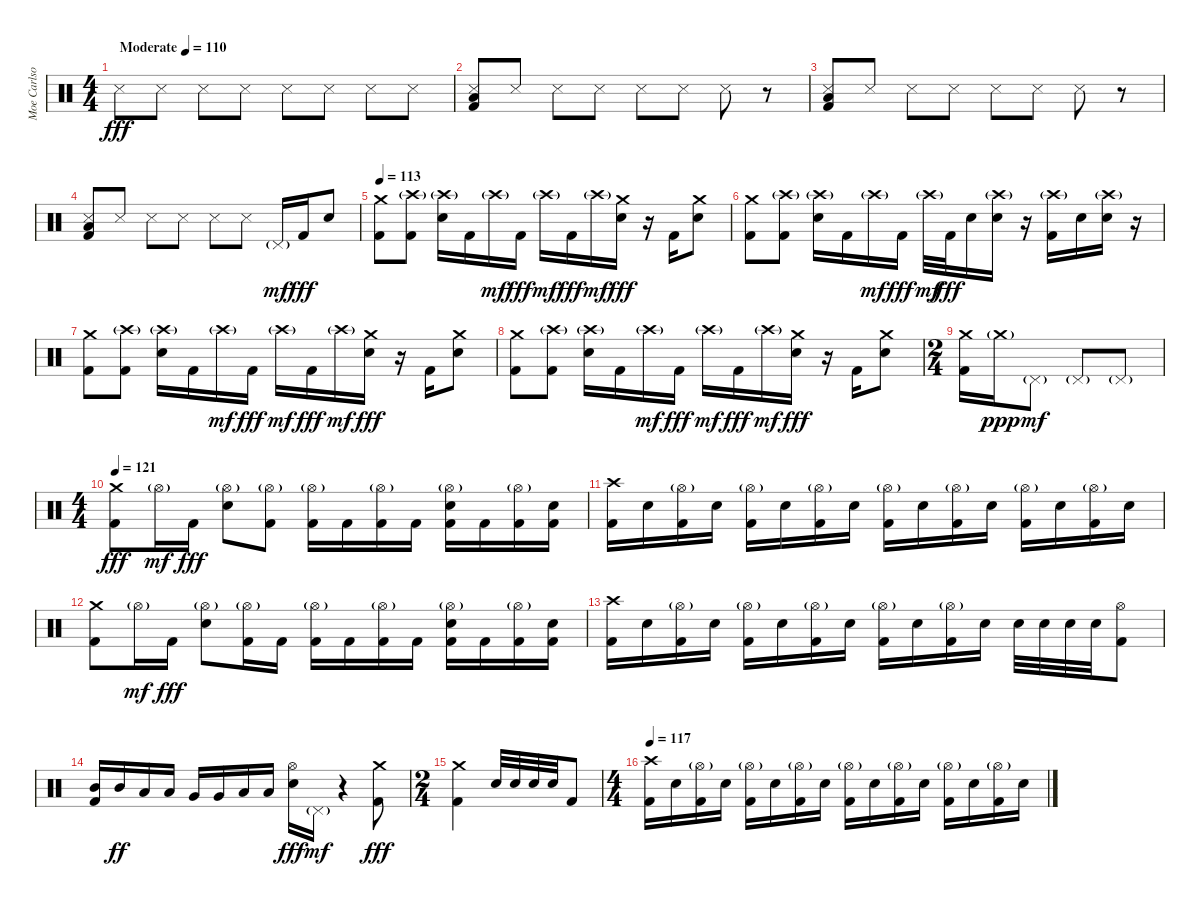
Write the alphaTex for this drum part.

\track ("Moe Carlson" "Moe Carlso") {instrument percussion}
\staff {score}
\articulation defaults
\ts (4 4)
\tempo (110 "Moderate")
\clef neutral
\ks c "Snare (side stick) 3".8{dy fff} "Snare (side stick) 3".8 "Snare (side stick) 3".8 "Snare (side stick) 3".8 "Snare (side stick) 3".8 "Snare (side stick) 3".8 "Snare (side stick) 3".8 "Snare (side stick) 3".8
|
("Snare (side stick) 3" "Low Floor Tom (hit)" "Kick (hit) 2").8 "Snare (side stick) 3".8 "Snare (side stick) 3".8 "Snare (side stick) 3".8 "Snare (side stick) 3".8 "Snare (side stick) 3".8 "Snare (side stick) 3".8 r.8 |
("Snare (side stick) 3" "Low Floor Tom (hit)" "Kick (hit) 2").8 "Snare (side stick) 3".8 "Snare (side stick) 3".8 "Snare (side stick) 3".8 "Snare (side stick) 3".8 "Snare (side stick) 3".8 "Snare (side stick) 3".8 r.8 |
("Snare (side stick) 3" "Low Floor Tom (hit)" "Kick (hit) 2").8 "Snare (side stick) 3".8 "Snare (side stick) 3".8 "Snare (side stick) 3".8 "Snare (side stick) 3".8 "Snare (side stick) 3".8 "Pedal Hi-Hat (hit)"{g}.16{dy mf} "Kick (hit) 2".16{dy fff} "Electric Snare (hit)".8 |
\tempo 113
("Crash medium (hit)" "Kick (hit) 2").8 ("Crash high (hit)"{g} "Kick (hit) 2").8 ("Crash high (hit)"{g} "Electric Snare (hit)").16 "Kick (hit) 2".16 "Crash high (hit)"{g}.16{dy mf} "Kick (hit) 2".16{dy fff} "Crash high (hit)"{g}.16{dy mf} "Kick (hit) 2".16{dy fff} "Crash high (hit)"{g}.16{dy mf} ("Crash medium (hit)" "Electric Snare (hit)").16{dy fff} r.16 "Kick (hit) 2".16 ("Crash medium (hit)" "Electric Snare (hit)").8 |
("Crash medium (hit)" "Kick (hit) 2").8 ("Crash high (hit)"{g} "Kick (hit) 2").8 ("Crash high (hit)"{g} "Electric Snare (hit)").16 "Kick (hit) 2".16 "Crash high (hit)"{g}.16{dy mf} "Kick (hit) 2".16{dy fff} "Crash high (hit)"{g}.32{dy mf} "Kick (hit) 2".32{dy fff} "Electric Snare (hit)".16 ("Crash high (hit)"{g} "Electric Snare (hit)").16 r.16 ("Crash high (hit)"{g} "Kick (hit) 2").16 "Electric Snare (hit)".16 ("Crash high (hit)"{g} "Electric Snare (hit)").16 r.16 |
("Crash medium (hit)" "Kick (hit) 2").8 ("Crash high (hit)"{g} "Kick (hit) 2").8 ("Crash high (hit)"{g} "Electric Snare (hit)").16 "Kick (hit) 2".16 "Crash high (hit)"{g}.16{dy mf} "Kick (hit) 2".16{dy fff} "Crash high (hit)"{g}.16{dy mf} "Kick (hit) 2".16{dy fff} "Crash high (hit)"{g}.16{dy mf} ("Crash medium (hit)" "Electric Snare (hit)").16{dy fff} r.16 "Kick (hit) 2".16 ("Crash medium (hit)" "Electric Snare (hit)").8 |
("Crash medium (hit)" "Kick (hit) 2").8 ("Crash high (hit)"{g} "Kick (hit) 2").8 ("Crash high (hit)"{g} "Electric Snare (hit)").16 "Kick (hit) 2".16 "Crash high (hit)"{g}.16{dy mf} "Kick (hit) 2".16{dy fff} "Crash high (hit)"{g}.16{dy mf} "Kick (hit) 2".16{dy fff} "Crash high (hit)"{g}.16{dy mf} ("Crash medium (hit)" "Electric Snare (hit)").16{dy fff} r.16 "Kick (hit) 2".16 ("Crash medium (hit)" "Electric Snare (hit)").8 |
\ts (2 4)
("Crash medium (hit)" "Kick (hit) 2").16 "Crash medium (hit)"{g}.16{dy ppp} "Pedal Hi-Hat (hit)"{g}.8{dy mf} "Pedal Hi-Hat (hit)"{g}.8 "Pedal Hi-Hat (hit)"{g}.8 |
\ts (4 4)
\tempo 121
("Crash medium (hit)" "Kick (hit) 2").8{dy fff} "Hi-Hat (open)"{g}.16{dy mf} "Kick (hit) 2".16{dy fff} ("Hi-Hat (open)"{g} "Electric Snare (hit)").8 ("Hi-Hat (open)"{g} "Kick (hit) 2").8 ("Hi-Hat (open)"{g} "Kick (hit) 2").16 "Kick (hit) 2".16 ("Hi-Hat (open)"{g} "Kick (hit) 2").16 "Kick (hit) 2".16 ("Hi-Hat (open)"{g} "Electric Snare (hit)" "Kick (hit) 2").16 "Kick (hit) 2".16 ("Hi-Hat (open)"{g} "Kick (hit) 2").16 ("Electric Snare (hit)" "Kick (hit) 2").16 |
("Crash high (hit)" "Kick (hit) 2").16 "Electric Snare (hit)".16 ("Hi-Hat (open)"{g} "Kick (hit) 2").16 "Electric Snare (hit)".16 ("Hi-Hat (open)"{g} "Kick (hit) 2").16 "Electric Snare (hit)".16 ("Hi-Hat (open)"{g} "Kick (hit) 2").16 "Electric Snare (hit)".16 ("Hi-Hat (open)"{g} "Kick (hit) 2").16 "Electric Snare (hit)".16 ("Hi-Hat (open)"{g} "Kick (hit) 2").16 "Electric Snare (hit)".16 ("Hi-Hat (open)"{g} "Kick (hit) 2").16 "Electric Snare (hit)".16 ("Hi-Hat (open)"{g} "Kick (hit) 2").16 "Electric Snare (hit)".16 |
("Crash medium (hit)" "Kick (hit) 2").8 "Hi-Hat (open)"{g}.16{dy mf} "Kick (hit) 2".16{dy fff} ("Hi-Hat (open)"{g} "Electric Snare (hit)").8 ("Hi-Hat (open)"{g} "Kick (hit) 2").16 "Kick (hit) 2".16 ("Hi-Hat (open)"{g} "Kick (hit) 2").16 "Kick (hit) 2".16 ("Hi-Hat (open)"{g} "Kick (hit) 2").16 "Kick (hit) 2".16 ("Hi-Hat (open)"{g} "Electric Snare (hit)" "Kick (hit) 2").16 "Kick (hit) 2".16 ("Hi-Hat (open)"{g} "Kick (hit) 2").16 ("Electric Snare (hit)" "Kick (hit) 2").16 |
("Crash high (hit)" "Kick (hit) 2").16 "Electric Snare (hit)".16 ("Hi-Hat (open)"{g} "Kick (hit) 2").16 "Electric Snare (hit)".16 ("Hi-Hat (open)"{g} "Kick (hit) 2").16 "Electric Snare (hit)".16 ("Hi-Hat (open)"{g} "Kick (hit) 2").16 "Electric Snare (hit)".16 ("Hi-Hat (open)"{g} "Kick (hit) 2").16 "Electric Snare (hit)".16 ("Hi-Hat (open)"{g} "Kick (hit) 2").16 "Electric Snare (hit)".16 "Electric Snare (hit)".32 "Electric Snare (hit)".32 "Electric Snare (hit)".32 "Electric Snare (hit)".32 ("Hi-Hat (open)" "Kick (hit) 2").8 |
("Mid Tom (hit)" "Kick (hit) 2").16 "Mid Tom (hit)".16{dy ff} "Low Tom (hit)".16 "Low Tom (hit)".16 "Very Low Tom (hit)".16 "Very Low Tom (hit)".16 "Low Floor Tom (hit)".16 "Low Floor Tom (hit)".16 ("Hi-Hat (open)" "Electric Snare (hit)").16{dy fff} "Pedal Hi-Hat (hit)"{g}.16{dy mf} r.4 ("Crash medium (hit)" "Kick (hit) 2").8{dy fff} |
\ts (2 4)
("Crash medium (hit)" "Kick (hit) 2").4 "Electric Snare (hit)".32 "Electric Snare (hit)".32 "Electric Snare (hit)".32 "Electric Snare (hit)".32 "Kick (hit) 2".8 |
\ts (4 4)
\tempo 117
("Crash high (hit)" "Kick (hit) 2").16 "Electric Snare (hit)".16 ("Hi-Hat (open)"{g} "Kick (hit) 2").16 "Electric Snare (hit)".16 ("Hi-Hat (open)"{g} "Kick (hit) 2").16 "Electric Snare (hit)".16 ("Hi-Hat (open)"{g} "Kick (hit) 2").16 "Electric Snare (hit)".16 ("Hi-Hat (open)"{g} "Kick (hit) 2").16 "Electric Snare (hit)".16 ("Hi-Hat (open)"{g} "Kick (hit) 2").16 "Electric Snare (hit)".16 ("Hi-Hat (open)"{g} "Kick (hit) 2").16 "Electric Snare (hit)".16 ("Hi-Hat (open)"{g} "Kick (hit) 2").16 "Electric Snare (hit)".16
